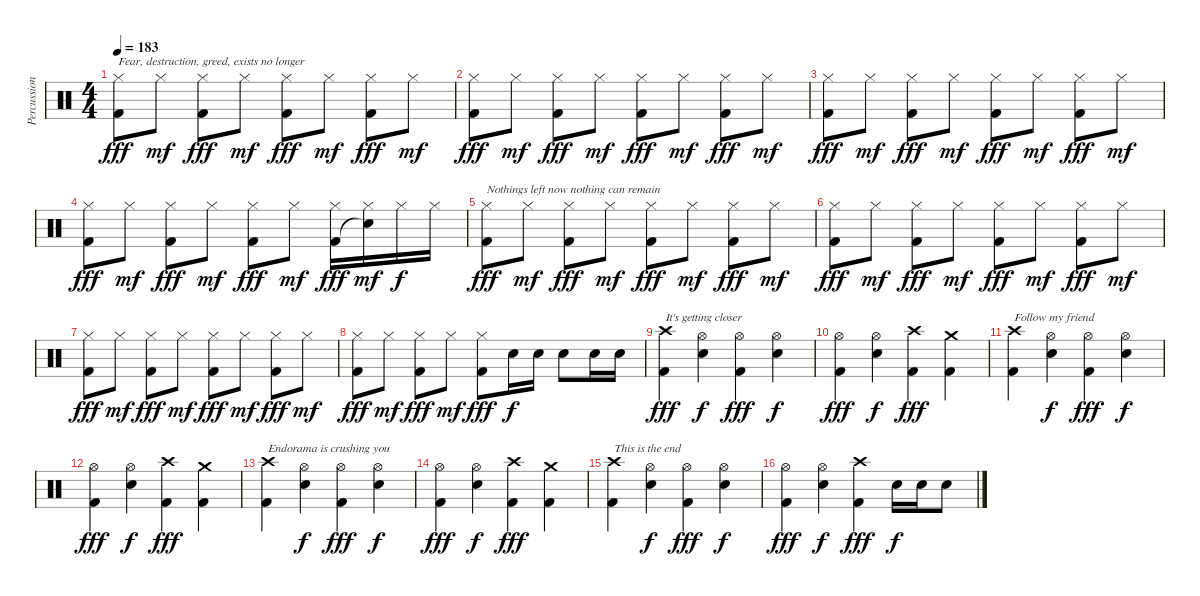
\track ("Percussion" "Percussion") {instrument percussion}
\staff {score}
\articulation defaults
\ts (4 4)
\tempo 183
\clef neutral
\ks c
("Hi-Hat (closed)" "Kick (hit) 2").8{txt "Fear, destruction, greed, exists no longer" dy fff} "Hi-Hat (closed)".8{dy mf} ("Hi-Hat (closed)" "Kick (hit) 2").8{dy fff} "Hi-Hat (closed)".8{dy mf} ("Hi-Hat (closed)" "Kick (hit) 2").8{dy fff} "Hi-Hat (closed)".8{dy mf} ("Hi-Hat (closed)" "Kick (hit) 2").8{dy fff} "Hi-Hat (closed)".8{dy mf} |
("Hi-Hat (closed)" "Kick (hit) 2").8{dy fff} "Hi-Hat (closed)".8{dy mf} ("Hi-Hat (closed)" "Kick (hit) 2").8{dy fff} "Hi-Hat (closed)".8{dy mf} ("Hi-Hat (closed)" "Kick (hit) 2").8{dy fff} "Hi-Hat (closed)".8{dy mf} ("Hi-Hat (closed)" "Kick (hit) 2").8{dy fff} "Hi-Hat (closed)".8{dy mf} |
("Hi-Hat (closed)" "Kick (hit) 2").8{dy fff} "Hi-Hat (closed)".8{dy mf} ("Hi-Hat (closed)" "Kick (hit) 2").8{dy fff} "Hi-Hat (closed)".8{dy mf} ("Hi-Hat (closed)" "Kick (hit) 2").8{dy fff} "Hi-Hat (closed)".8{dy mf} ("Hi-Hat (closed)" "Kick (hit) 2").8{dy fff} "Hi-Hat (closed)".8{dy mf} |
("Hi-Hat (closed)" "Kick (hit) 2").8{dy fff} "Hi-Hat (closed)".8{dy mf} ("Hi-Hat (closed)" "Kick (hit) 2").8{dy fff} "Hi-Hat (closed)".8{dy mf} ("Hi-Hat (closed)" "Kick (hit) 2").8{dy fff} "Hi-Hat (closed)".8{dy mf} ("Hi-Hat (closed)" "Kick (hit) 2").16{dy fff} ("Hi-Hat (closed)" "Snare (hit)"{t}).16{dy mf} "Hi-Hat (closed)".16{dy f} "Hi-Hat (closed)".16 |
("Hi-Hat (closed)" "Kick (hit) 2").8{txt "Nothings left now nothing can remain" dy fff} "Hi-Hat (closed)".8{dy mf} ("Hi-Hat (closed)" "Kick (hit) 2").8{dy fff} "Hi-Hat (closed)".8{dy mf} ("Hi-Hat (closed)" "Kick (hit) 2").8{dy fff} "Hi-Hat (closed)".8{dy mf} ("Hi-Hat (closed)" "Kick (hit) 2").8{dy fff} "Hi-Hat (closed)".8{dy mf} |
("Hi-Hat (closed)" "Kick (hit) 2").8{dy fff} "Hi-Hat (closed)".8{dy mf} ("Hi-Hat (closed)" "Kick (hit) 2").8{dy fff} "Hi-Hat (closed)".8{dy mf} ("Hi-Hat (closed)" "Kick (hit) 2").8{dy fff} "Hi-Hat (closed)".8{dy mf} ("Hi-Hat (closed)" "Kick (hit) 2").8{dy fff} "Hi-Hat (closed)".8{dy mf} |
("Hi-Hat (closed)" "Kick (hit) 2").8{dy fff} "Hi-Hat (closed)".8{dy mf} ("Hi-Hat (closed)" "Kick (hit) 2").8{dy fff} "Hi-Hat (closed)".8{dy mf} ("Hi-Hat (closed)" "Kick (hit) 2").8{dy fff} "Hi-Hat (closed)".8{dy mf} ("Hi-Hat (closed)" "Kick (hit) 2").8{dy fff} "Hi-Hat (closed)".8{dy mf} |
("Hi-Hat (closed)" "Kick (hit) 2").8{dy fff} "Hi-Hat (closed)".8{dy mf} ("Hi-Hat (closed)" "Kick (hit) 2").8{dy fff} "Hi-Hat (closed)".8{dy mf} ("Hi-Hat (closed)" "Kick (hit) 2").8{dy fff} "Snare (hit) 2".16{dy f} "Snare (hit) 2".16 "Snare (hit) 2".8 "Snare (hit) 2".16 "Snare (hit) 2".16 |
("Crash high (hit)" "Kick (hit) 2").4{txt "It's getting closer" dy fff} ("Hi-Hat (open)" "Snare (hit) 2").4{dy f} ("Hi-Hat (open)" "Kick (hit) 2").4{dy fff} ("Hi-Hat (open)" "Snare (hit) 2").4{dy f} |
("Hi-Hat (open)" "Kick (hit) 2").4{dy fff} ("Hi-Hat (open)" "Snare (hit) 2").4{dy f} ("Crash high (hit)" "Kick (hit) 2").4{dy fff} ("Crash medium (hit)" "Kick (hit) 2").4 |
("Crash high (hit)" "Kick (hit) 2").4{txt "Follow my friend"} ("Hi-Hat (open)" "Snare (hit) 2").4{dy f} ("Hi-Hat (open)" "Kick (hit) 2").4{dy fff} ("Hi-Hat (open)" "Snare (hit) 2").4{dy f} |
("Hi-Hat (open)" "Kick (hit) 2").4{dy fff} ("Hi-Hat (open)" "Snare (hit) 2").4{dy f} ("Crash high (hit)" "Kick (hit) 2").4{dy fff} ("Crash medium (hit)" "Kick (hit) 2").4 |
("Crash high (hit)" "Kick (hit) 2").4{txt "Endorama is crushing you"} ("Hi-Hat (open)" "Snare (hit) 2").4{dy f} ("Hi-Hat (open)" "Kick (hit) 2").4{dy fff} ("Hi-Hat (open)" "Snare (hit) 2").4{dy f} |
("Hi-Hat (open)" "Kick (hit) 2").4{dy fff} ("Hi-Hat (open)" "Snare (hit) 2").4{dy f} ("Crash high (hit)" "Kick (hit) 2").4{dy fff} ("Crash medium (hit)" "Kick (hit) 2").4 |
("Crash high (hit)" "Kick (hit) 2").4{txt "This is the end"} ("Hi-Hat (open)" "Snare (hit) 2").4{dy f} ("Hi-Hat (open)" "Kick (hit) 2").4{dy fff} ("Hi-Hat (open)" "Snare (hit) 2").4{dy f} |
("Hi-Hat (open)" "Kick (hit) 2").4{dy fff} ("Hi-Hat (open)" "Snare (hit) 2").4{dy f} ("Crash high (hit)" "Kick (hit) 2").4{dy fff} "Snare (hit) 2".16{dy f} "Snare (hit) 2".16 "Snare (hit) 2".8
